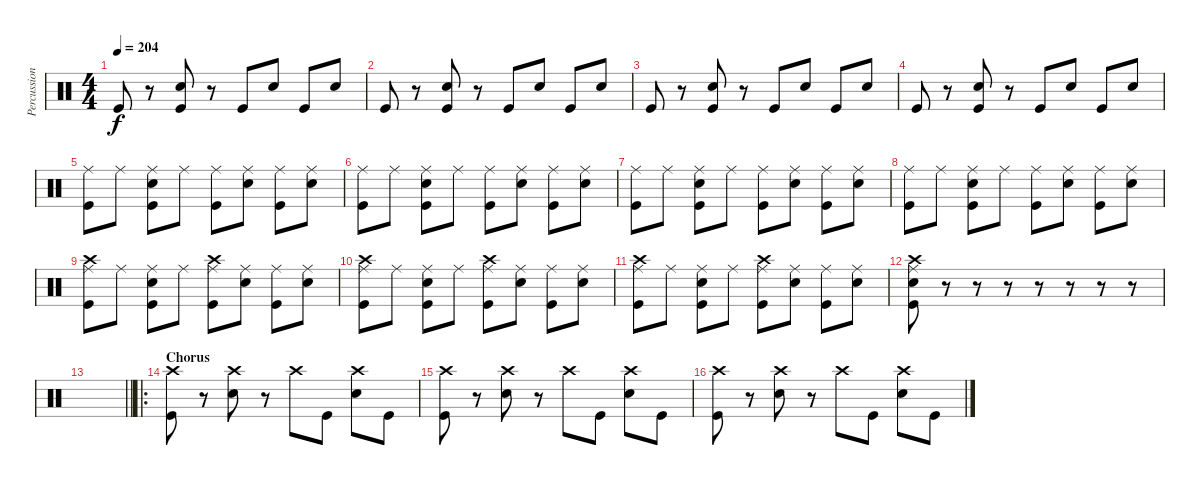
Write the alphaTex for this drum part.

\track ("Percussion" "Percussion") {instrument percussion}
\staff {score}
\articulation defaults
\ts (4 4)
\tempo 204
\clef neutral
\ks c "Kick (hit)".8{dy f}
r.8 ("Snare (hit) 2" "Kick (hit)").8 r.8 "Kick (hit)".8 "Snare (hit) 2".8 "Kick (hit)".8 "Snare (hit) 2".8 |
"Kick (hit)".8 r.8 ("Snare (hit) 2" "Kick (hit)").8 r.8 "Kick (hit)".8 "Snare (hit) 2".8 "Kick (hit)".8 "Snare (hit) 2".8 |
"Kick (hit)".8 r.8 ("Snare (hit) 2" "Kick (hit)").8 r.8 "Kick (hit)".8 "Snare (hit) 2".8 "Kick (hit)".8 "Snare (hit) 2".8 |
"Kick (hit)".8 r.8 ("Snare (hit) 2" "Kick (hit)").8 r.8 "Kick (hit)".8 "Snare (hit) 2".8 "Kick (hit)".8 "Snare (hit) 2".8 |
("Ride (middle)" "Kick (hit)").8 "Ride (middle)".8 ("Ride (middle)" "Snare (hit) 2" "Kick (hit)").8 "Ride (middle)".8 ("Ride (middle)" "Kick (hit)").8 ("Ride (middle)" "Snare (hit) 2").8 ("Ride (middle)" "Kick (hit)").8 ("Ride (middle)" "Snare (hit) 2").8 |
("Ride (middle)" "Kick (hit)").8 "Ride (middle)".8 ("Ride (middle)" "Snare (hit) 2" "Kick (hit)").8 "Ride (middle)".8 ("Ride (middle)" "Kick (hit)").8 ("Ride (middle)" "Snare (hit) 2").8 ("Ride (middle)" "Kick (hit)").8 ("Ride (middle)" "Snare (hit) 2").8 |
("Ride (middle)" "Kick (hit)").8 "Ride (middle)".8 ("Ride (middle)" "Snare (hit) 2" "Kick (hit)").8 "Ride (middle)".8 ("Ride (middle)" "Kick (hit)").8 ("Ride (middle)" "Snare (hit) 2").8 ("Ride (middle)" "Kick (hit)").8 ("Ride (middle)" "Snare (hit) 2").8 |
("Ride (middle)" "Kick (hit)").8 "Ride (middle)".8 ("Ride (middle)" "Snare (hit) 2" "Kick (hit)").8 "Ride (middle)".8 ("Ride (middle)" "Kick (hit)").8 ("Ride (middle)" "Snare (hit) 2").8 ("Ride (middle)" "Kick (hit)").8 ("Ride (middle)" "Snare (hit) 2").8 |
("Ride (middle)" "Crash high (hit)" "Kick (hit)").8 "Ride (middle)".8 ("Ride (middle)" "Snare (hit) 2" "Kick (hit)").8 "Ride (middle)".8 ("Ride (middle)" "Crash high (hit)" "Kick (hit)").8 ("Ride (middle)" "Snare (hit) 2").8 ("Ride (middle)" "Kick (hit)").8 ("Ride (middle)" "Snare (hit) 2").8 |
("Ride (middle)" "Crash high (hit)" "Kick (hit)").8 "Ride (middle)".8 ("Ride (middle)" "Snare (hit) 2" "Kick (hit)").8 "Ride (middle)".8 ("Ride (middle)" "Crash high (hit)" "Kick (hit)").8 ("Ride (middle)" "Snare (hit) 2").8 ("Ride (middle)" "Kick (hit)").8 ("Ride (middle)" "Snare (hit) 2").8 |
("Ride (middle)" "Crash high (hit)" "Kick (hit)").8 "Ride (middle)".8 ("Ride (middle)" "Snare (hit) 2" "Kick (hit)").8 "Ride (middle)".8 ("Ride (middle)" "Crash high (hit)" "Kick (hit)").8 ("Ride (middle)" "Snare (hit) 2").8 ("Ride (middle)" "Kick (hit)").8 ("Ride (middle)" "Snare (hit) 2").8 |
("Ride (middle)" "Crash high (hit)" "Kick (hit)" "Snare (hit) 2").8 r.8 r.8 r.8 r.8 r.8 r.8 r.8 |
\barLineRight lightlight
|
\ro
\section ("" "Chorus")
("Crash high (hit)" "Kick (hit)").8 r.8 ("Crash high (hit)" "Snare (hit) 2").8 r.8 "Crash high (hit)".8 "Kick (hit)".8 ("Crash high (hit)" "Snare (hit) 2").8 "Kick (hit)".8 |
("Crash high (hit)" "Kick (hit)").8 r.8 ("Crash high (hit)" "Snare (hit) 2").8 r.8 "Crash high (hit)".8 "Kick (hit)".8 ("Crash high (hit)" "Snare (hit) 2").8 "Kick (hit)".8 |
("Crash high (hit)" "Kick (hit)").8 r.8 ("Crash high (hit)" "Snare (hit) 2").8 r.8 "Crash high (hit)".8 "Kick (hit)".8 ("Crash high (hit)" "Snare (hit) 2").8 "Kick (hit)".8
